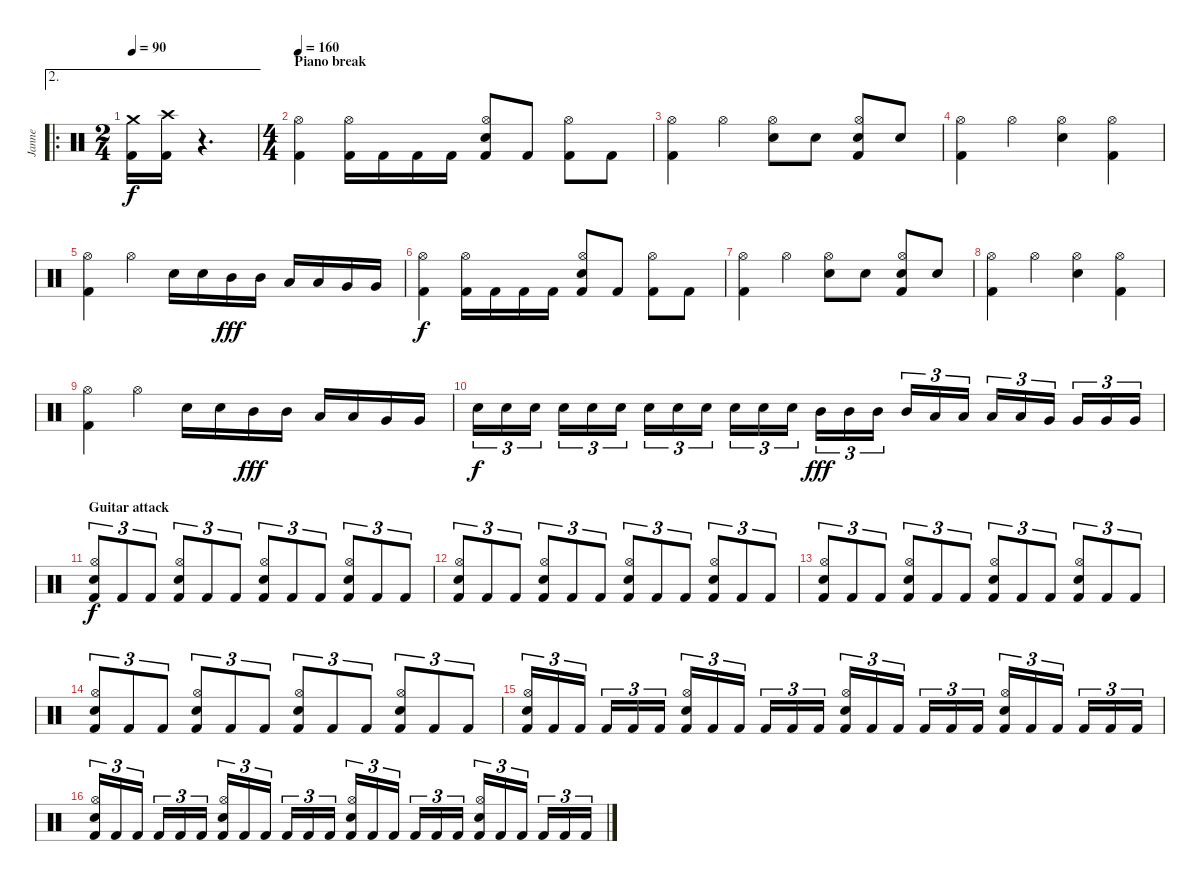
\track ("Janne" "Janne") {instrument percussion}
\staff {score}
\articulation defaults
\ae 2
\ro
\ts (2 4)
\tempo 90
\clef neutral
\ks c
("Crash medium (hit)" "Kick (hit) 2").16{dy f} ("Crash high (hit)" "Kick (hit) 2").16 r.4{d} |
\ts (4 4)
\section ("" "Piano break")
\tempo 160
("Hi-Hat (open)" "Kick (hit) 2").4 ("Hi-Hat (open)" "Kick (hit) 2").16 "Kick (hit) 2".16 "Kick (hit) 2".16 "Kick (hit) 2".16 ("Hi-Hat (open)" "Electric Snare (hit)" "Kick (hit) 2").8 "Kick (hit) 2".8 ("Hi-Hat (open)" "Kick (hit) 2").8 "Kick (hit) 2".8 |
("Hi-Hat (open)" "Kick (hit) 2").4 "Hi-Hat (open)".4 ("Hi-Hat (open)" "Electric Snare (hit)").8 "Electric Snare (hit)".8 ("Hi-Hat (open)" "Electric Snare (hit)" "Kick (hit) 2").8 "Electric Snare (hit)".8 |
("Hi-Hat (open)" "Kick (hit) 2").4 "Hi-Hat (open)".4 ("Hi-Hat (open)" "Electric Snare (hit)").4 ("Hi-Hat (open)" "Kick (hit) 2").4 |
("Hi-Hat (open)" "Kick (hit) 2").4 "Hi-Hat (open)".4 "Electric Snare (hit)".16 "Electric Snare (hit)".16 "Mid Tom (hit)".16{dy fff} "Mid Tom (hit)".16 "Low Tom (hit)".16 "Low Tom (hit)".16 "Very Low Tom (hit)".16 "Very Low Tom (hit)".16 |
("Hi-Hat (open)" "Kick (hit) 2").4{dy f} ("Hi-Hat (open)" "Kick (hit) 2").16 "Kick (hit) 2".16 "Kick (hit) 2".16 "Kick (hit) 2".16 ("Hi-Hat (open)" "Electric Snare (hit)" "Kick (hit) 2").8 "Kick (hit) 2".8 ("Hi-Hat (open)" "Kick (hit) 2").8 "Kick (hit) 2".8 |
("Hi-Hat (open)" "Kick (hit) 2").4 "Hi-Hat (open)".4 ("Hi-Hat (open)" "Electric Snare (hit)").8 "Electric Snare (hit)".8 ("Hi-Hat (open)" "Electric Snare (hit)" "Kick (hit) 2").8 "Electric Snare (hit)".8 |
("Hi-Hat (open)" "Kick (hit) 2").4 "Hi-Hat (open)".4 ("Hi-Hat (open)" "Electric Snare (hit)").4 ("Hi-Hat (open)" "Kick (hit) 2").4 |
("Hi-Hat (open)" "Kick (hit) 2").4 "Hi-Hat (open)".4 "Electric Snare (hit)".16 "Electric Snare (hit)".16 "Mid Tom (hit)".16{dy fff} "Mid Tom (hit)".16 "Low Tom (hit)".16 "Low Tom (hit)".16 "Very Low Tom (hit)".16 "Very Low Tom (hit)".16 |
"Electric Snare (hit)".16{tu (3 2) dy f} "Electric Snare (hit)".16{tu (3 2)} "Electric Snare (hit)".16{tu (3 2)} "Electric Snare (hit)".16{tu (3 2)} "Electric Snare (hit)".16{tu (3 2)} "Electric Snare (hit)".16{tu (3 2)} "Electric Snare (hit)".16{tu (3 2)} "Electric Snare (hit)".16{tu (3 2)} "Electric Snare (hit)".16{tu (3 2)} "Electric Snare (hit)".16{tu (3 2)} "Electric Snare (hit)".16{tu (3 2)} "Electric Snare (hit)".16{tu (3 2)} "Mid Tom (hit)".16{tu (3 2) dy fff} "Mid Tom (hit)".16{tu (3 2)} "Mid Tom (hit)".16{tu (3 2)} "Mid Tom (hit)".16{tu (3 2)} "Low Tom (hit)".16{tu (3 2)} "Low Tom (hit)".16{tu (3 2)} "Low Tom (hit)".16{tu (3 2)} "Low Tom (hit)".16{tu (3 2)} "Very Low Tom (hit)".16{tu (3 2)} "Very Low Tom (hit)".16{tu (3 2)} "Very Low Tom (hit)".16{tu (3 2)} "Very Low Tom (hit)".16{tu (3 2)} |
\section ("" "Guitar attack")
("Hi-Hat (open)" "Electric Snare (hit)" "Kick (hit) 2").8{tu (3 2) dy f} "Kick (hit) 2".8{tu (3 2)} "Kick (hit) 2".8{tu (3 2)} ("Hi-Hat (open)" "Electric Snare (hit)" "Kick (hit) 2").8{tu (3 2)} "Kick (hit) 2".8{tu (3 2)} "Kick (hit) 2".8{tu (3 2)} ("Hi-Hat (open)" "Electric Snare (hit)" "Kick (hit) 2").8{tu (3 2)} "Kick (hit) 2".8{tu (3 2)} "Kick (hit) 2".8{tu (3 2)} ("Hi-Hat (open)" "Electric Snare (hit)" "Kick (hit) 2").8{tu (3 2)} "Kick (hit) 2".8{tu (3 2)} "Kick (hit) 2".8{tu (3 2)} |
("Hi-Hat (open)" "Electric Snare (hit)" "Kick (hit) 2").8{tu (3 2)} "Kick (hit) 2".8{tu (3 2)} "Kick (hit) 2".8{tu (3 2)} ("Hi-Hat (open)" "Electric Snare (hit)" "Kick (hit) 2").8{tu (3 2)} "Kick (hit) 2".8{tu (3 2)} "Kick (hit) 2".8{tu (3 2)} ("Hi-Hat (open)" "Electric Snare (hit)" "Kick (hit) 2").8{tu (3 2)} "Kick (hit) 2".8{tu (3 2)} "Kick (hit) 2".8{tu (3 2)} ("Hi-Hat (open)" "Electric Snare (hit)" "Kick (hit) 2").8{tu (3 2)} "Kick (hit) 2".8{tu (3 2)} "Kick (hit) 2".8{tu (3 2)} |
("Hi-Hat (open)" "Electric Snare (hit)" "Kick (hit) 2").8{tu (3 2)} "Kick (hit) 2".8{tu (3 2)} "Kick (hit) 2".8{tu (3 2)} ("Hi-Hat (open)" "Electric Snare (hit)" "Kick (hit) 2").8{tu (3 2)} "Kick (hit) 2".8{tu (3 2)} "Kick (hit) 2".8{tu (3 2)} ("Hi-Hat (open)" "Electric Snare (hit)" "Kick (hit) 2").8{tu (3 2)} "Kick (hit) 2".8{tu (3 2)} "Kick (hit) 2".8{tu (3 2)} ("Hi-Hat (open)" "Electric Snare (hit)" "Kick (hit) 2").8{tu (3 2)} "Kick (hit) 2".8{tu (3 2)} "Kick (hit) 2".8{tu (3 2)} |
("Hi-Hat (open)" "Electric Snare (hit)" "Kick (hit) 2").8{tu (3 2)} "Kick (hit) 2".8{tu (3 2)} "Kick (hit) 2".8{tu (3 2)} ("Hi-Hat (open)" "Electric Snare (hit)" "Kick (hit) 2").8{tu (3 2)} "Kick (hit) 2".8{tu (3 2)} "Kick (hit) 2".8{tu (3 2)} ("Hi-Hat (open)" "Electric Snare (hit)" "Kick (hit) 2").8{tu (3 2)} "Kick (hit) 2".8{tu (3 2)} "Kick (hit) 2".8{tu (3 2)} ("Hi-Hat (open)" "Electric Snare (hit)" "Kick (hit) 2").8{tu (3 2)} "Kick (hit) 2".8{tu (3 2)} "Kick (hit) 2".8{tu (3 2)} |
("Hi-Hat (open)" "Electric Snare (hit)" "Kick (hit) 2").16{tu (3 2)} "Kick (hit) 2".16{tu (3 2)} "Kick (hit) 2".16{tu (3 2)} "Kick (hit) 2".16{tu (3 2)} "Kick (hit) 2".16{tu (3 2)} "Kick (hit) 2".16{tu (3 2)} ("Hi-Hat (open)" "Electric Snare (hit)" "Kick (hit) 2").16{tu (3 2)} "Kick (hit) 2".16{tu (3 2)} "Kick (hit) 2".16{tu (3 2)} "Kick (hit) 2".16{tu (3 2)} "Kick (hit) 2".16{tu (3 2)} "Kick (hit) 2".16{tu (3 2)} ("Hi-Hat (open)" "Electric Snare (hit)" "Kick (hit) 2").16{tu (3 2)} "Kick (hit) 2".16{tu (3 2)} "Kick (hit) 2".16{tu (3 2)} "Kick (hit) 2".16{tu (3 2)} "Kick (hit) 2".16{tu (3 2)} "Kick (hit) 2".16{tu (3 2)} ("Hi-Hat (open)" "Electric Snare (hit)" "Kick (hit) 2").16{tu (3 2)} "Kick (hit) 2".16{tu (3 2)} "Kick (hit) 2".16{tu (3 2)} "Kick (hit) 2".16{tu (3 2)} "Kick (hit) 2".16{tu (3 2)} "Kick (hit) 2".16{tu (3 2)} |
("Hi-Hat (open)" "Electric Snare (hit)" "Kick (hit) 2").16{tu (3 2)} "Kick (hit) 2".16{tu (3 2)} "Kick (hit) 2".16{tu (3 2)} "Kick (hit) 2".16{tu (3 2)} "Kick (hit) 2".16{tu (3 2)} "Kick (hit) 2".16{tu (3 2)} ("Hi-Hat (open)" "Electric Snare (hit)" "Kick (hit) 2").16{tu (3 2)} "Kick (hit) 2".16{tu (3 2)} "Kick (hit) 2".16{tu (3 2)} "Kick (hit) 2".16{tu (3 2)} "Kick (hit) 2".16{tu (3 2)} "Kick (hit) 2".16{tu (3 2)} ("Hi-Hat (open)" "Electric Snare (hit)" "Kick (hit) 2").16{tu (3 2)} "Kick (hit) 2".16{tu (3 2)} "Kick (hit) 2".16{tu (3 2)} "Kick (hit) 2".16{tu (3 2)} "Kick (hit) 2".16{tu (3 2)} "Kick (hit) 2".16{tu (3 2)} ("Hi-Hat (open)" "Electric Snare (hit)" "Kick (hit) 2").16{tu (3 2)} "Kick (hit) 2".16{tu (3 2)} "Kick (hit) 2".16{tu (3 2)} "Kick (hit) 2".16{tu (3 2)} "Kick (hit) 2".16{tu (3 2)} "Kick (hit) 2".16{tu (3 2)}
